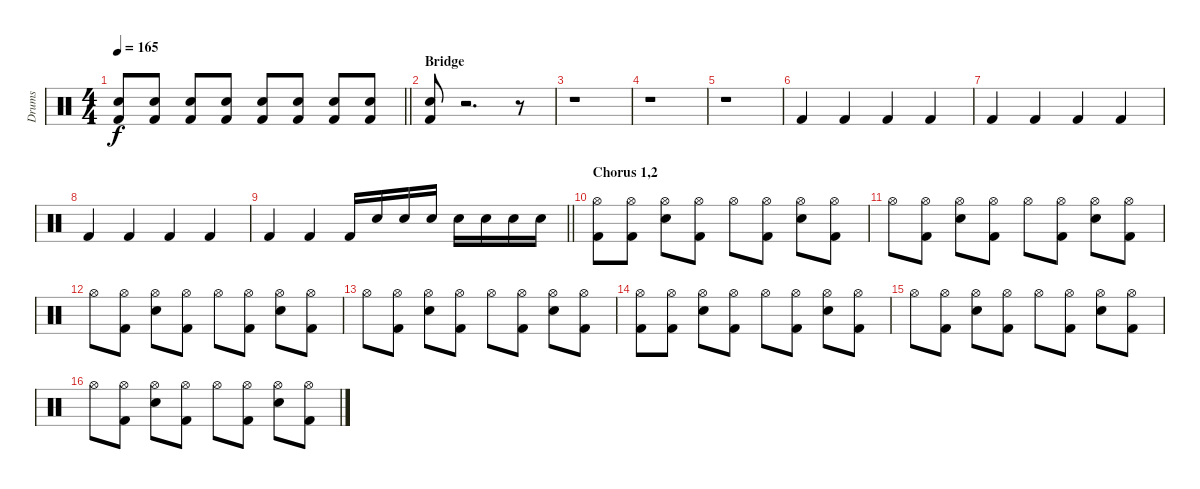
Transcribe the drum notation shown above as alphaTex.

\track ("Drums" "Drums") {instrument percussion}
\staff {score}
\articulation defaults
\ts (4 4)
\tempo 165
\clef neutral
\barLineRight lightlight
\ks c
("Snare (hit) 2" "Kick (hit) 2").8{dy f} ("Snare (hit) 2" "Kick (hit) 2").8 ("Snare (hit) 2" "Kick (hit) 2").8 ("Snare (hit) 2" "Kick (hit) 2").8 ("Snare (hit) 2" "Kick (hit) 2").8 ("Snare (hit) 2" "Kick (hit) 2").8 ("Snare (hit) 2" "Kick (hit) 2").8 ("Snare (hit) 2" "Kick (hit) 2").8 |
\section ("" "Bridge")
("Snare (hit) 2" "Kick (hit) 2").8 r.2{d} r.8 |
r.1 |
r.1 |
r.1 |
"Kick (hit) 2".4 "Kick (hit) 2".4 "Kick (hit) 2".4 "Kick (hit) 2".4 |
"Kick (hit) 2".4 "Kick (hit) 2".4 "Kick (hit) 2".4 "Kick (hit) 2".4 |
"Kick (hit) 2".4 "Kick (hit) 2".4 "Kick (hit) 2".4 "Kick (hit) 2".4 |
\barLineRight lightlight "Kick (hit) 2".4 "Kick (hit) 2".4 "Kick (hit) 2".16 "Snare (hit) 2".16 "Snare (hit) 2".16 "Snare (hit) 2".16 "Snare (hit) 2".16 "Snare (hit) 2".16 "Snare (hit) 2".16 "Snare (hit) 2".16
|
\section ("" "Chorus 1,2")
("Kick (hit) 2" "Hi-Hat (open)").8 ("Kick (hit) 2" "Hi-Hat (open)").8 ("Snare (hit) 2" "Hi-Hat (open)").8 ("Kick (hit) 2" "Hi-Hat (open)").8 "Hi-Hat (open)".8 ("Kick (hit) 2" "Hi-Hat (open)").8 ("Snare (hit) 2" "Hi-Hat (open)").8 ("Kick (hit) 2" "Hi-Hat (open)").8 |
"Hi-Hat (open)".8 ("Hi-Hat (open)" "Kick (hit) 2").8 ("Hi-Hat (open)" "Snare (hit) 2").8 ("Hi-Hat (open)" "Kick (hit) 2").8 "Hi-Hat (open)".8 ("Hi-Hat (open)" "Kick (hit) 2").8 ("Hi-Hat (open)" "Snare (hit) 2").8 ("Hi-Hat (open)" "Kick (hit) 2").8 |
"Hi-Hat (open)".8 ("Hi-Hat (open)" "Kick (hit) 2").8 ("Hi-Hat (open)" "Snare (hit) 2").8 ("Hi-Hat (open)" "Kick (hit) 2").8 "Hi-Hat (open)".8 ("Hi-Hat (open)" "Kick (hit) 2").8 ("Hi-Hat (open)" "Snare (hit) 2").8 ("Hi-Hat (open)" "Kick (hit) 2").8 |
"Hi-Hat (open)".8 ("Hi-Hat (open)" "Kick (hit) 2").8 ("Hi-Hat (open)" "Snare (hit) 2").8 ("Hi-Hat (open)" "Kick (hit) 2").8 "Hi-Hat (open)".8 ("Hi-Hat (open)" "Kick (hit) 2").8 ("Hi-Hat (open)" "Snare (hit) 2").8 ("Hi-Hat (open)" "Kick (hit) 2").8 |
("Hi-Hat (open)" "Kick (hit) 2").8 ("Hi-Hat (open)" "Kick (hit) 2").8 ("Hi-Hat (open)" "Snare (hit) 2").8 ("Hi-Hat (open)" "Kick (hit) 2").8 "Hi-Hat (open)".8 ("Hi-Hat (open)" "Kick (hit) 2").8 ("Hi-Hat (open)" "Snare (hit) 2").8 ("Hi-Hat (open)" "Kick (hit) 2").8 |
"Hi-Hat (open)".8 ("Hi-Hat (open)" "Kick (hit) 2").8 ("Hi-Hat (open)" "Snare (hit) 2").8 ("Hi-Hat (open)" "Kick (hit) 2").8 "Hi-Hat (open)".8 ("Hi-Hat (open)" "Kick (hit) 2").8 ("Hi-Hat (open)" "Snare (hit) 2").8 ("Hi-Hat (open)" "Kick (hit) 2").8 |
"Hi-Hat (open)".8 ("Hi-Hat (open)" "Kick (hit) 2").8 ("Hi-Hat (open)" "Snare (hit) 2").8 ("Hi-Hat (open)" "Kick (hit) 2").8 "Hi-Hat (open)".8 ("Hi-Hat (open)" "Kick (hit) 2").8 ("Hi-Hat (open)" "Snare (hit) 2").8 ("Hi-Hat (open)" "Kick (hit) 2").8
